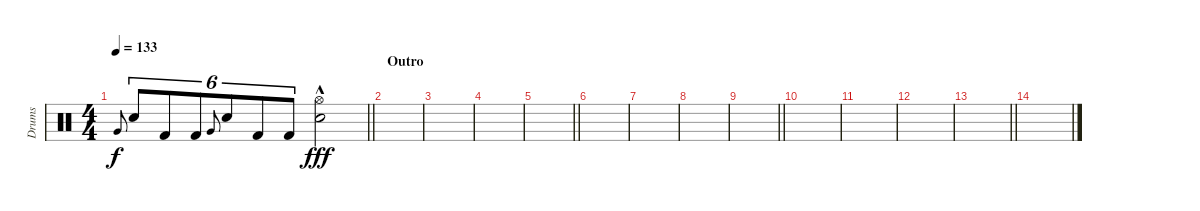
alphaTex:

\track ("Drums" "Drums") {instrument percussion}
\staff {score}
\articulation defaults
\ts (4 4)
\tempo 133
\clef neutral
\barLineRight lightlight
\ks c "Very Low Tom (hit)".8{gr onbeat dy f} "Snare (hit) 2".8{tu (6 4)} "Kick (hit) 2".8{tu (6 4)} "Kick (hit) 2".8{tu (6 4)} "Very Low Tom (hit)".8{gr onbeat} "Snare (hit) 2".8{tu (6 4)} "Kick (hit) 2".8{tu (6 4)} "Kick (hit) 2".8{tu (6 4)}
("Hi-Hat (open)"{hac} "Snare (hit) 2").2{dy fff} |
\section ("" "Outro")
|
|
|
\barLineRight lightlight
|
\section ("" "")
|
|
|
\barLineRight lightlight
|
\section ("" "")
|
|
|
\barLineRight lightlight
|
\section ("" "")
